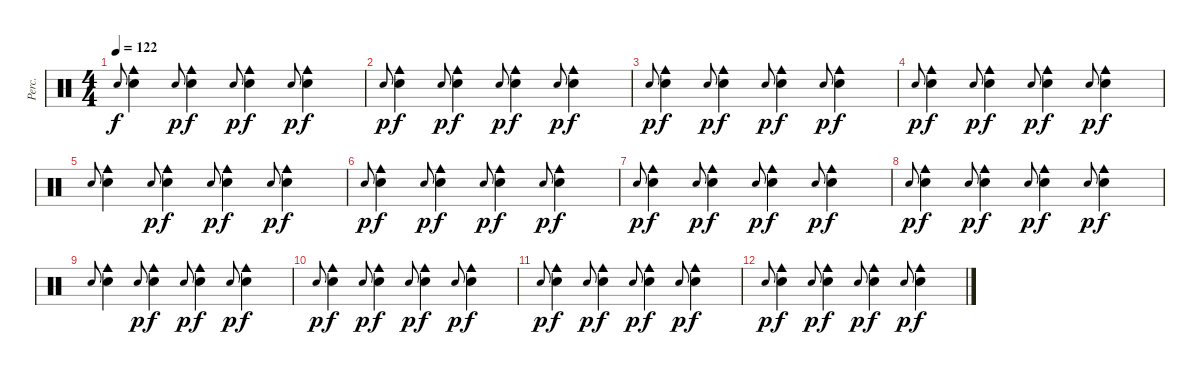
\track ("Perc." "Perc.") {instrument percussion}
\staff {score}
\articulation defaults
\ts (4 4)
\tempo 122
\clef neutral
\ks c "Hand Clap (hit)".8{gr onbeat dy f}
("Hand Clap (hit)" "Cowbell medium (hit)").4 "Hand Clap (hit)".8{gr onbeat dy p} ("Hand Clap (hit)" "Cowbell medium (hit)").4{dy f} "Hand Clap (hit)".8{gr onbeat dy p} ("Hand Clap (hit)" "Cowbell medium (hit)").4{dy f} "Hand Clap (hit)".8{gr onbeat dy p} ("Hand Clap (hit)" "Cowbell medium (hit)").4{dy f} |
"Hand Clap (hit)".8{gr onbeat dy p} ("Hand Clap (hit)" "Cowbell medium (hit)").4{dy f} "Hand Clap (hit)".8{gr onbeat dy p} ("Hand Clap (hit)" "Cowbell medium (hit)").4{dy f} "Hand Clap (hit)".8{gr onbeat dy p} ("Hand Clap (hit)" "Cowbell medium (hit)").4{dy f} "Hand Clap (hit)".8{gr onbeat dy p} ("Hand Clap (hit)" "Cowbell medium (hit)").4{dy f} |
"Hand Clap (hit)".8{gr onbeat dy p} ("Hand Clap (hit)" "Cowbell medium (hit)").4{dy f} "Hand Clap (hit)".8{gr onbeat dy p} ("Hand Clap (hit)" "Cowbell medium (hit)").4{dy f} "Hand Clap (hit)".8{gr onbeat dy p} ("Hand Clap (hit)" "Cowbell medium (hit)").4{dy f} "Hand Clap (hit)".8{gr onbeat dy p} ("Hand Clap (hit)" "Cowbell medium (hit)").4{dy f} |
"Hand Clap (hit)".8{gr onbeat dy p} ("Hand Clap (hit)" "Cowbell medium (hit)").4{dy f} "Hand Clap (hit)".8{gr onbeat dy p} ("Hand Clap (hit)" "Cowbell medium (hit)").4{dy f} "Hand Clap (hit)".8{gr onbeat dy p} ("Hand Clap (hit)" "Cowbell medium (hit)").4{dy f} "Hand Clap (hit)".8{gr onbeat dy p} ("Hand Clap (hit)" "Cowbell medium (hit)").4{dy f} |
"Hand Clap (hit)".8{gr onbeat} ("Hand Clap (hit)" "Cowbell medium (hit)").4 "Hand Clap (hit)".8{gr onbeat dy p} ("Hand Clap (hit)" "Cowbell medium (hit)").4{dy f} "Hand Clap (hit)".8{gr onbeat dy p} ("Hand Clap (hit)" "Cowbell medium (hit)").4{dy f} "Hand Clap (hit)".8{gr onbeat dy p} ("Hand Clap (hit)" "Cowbell medium (hit)").4{dy f} |
"Hand Clap (hit)".8{gr onbeat dy p} ("Hand Clap (hit)" "Cowbell medium (hit)").4{dy f} "Hand Clap (hit)".8{gr onbeat dy p} ("Hand Clap (hit)" "Cowbell medium (hit)").4{dy f} "Hand Clap (hit)".8{gr onbeat dy p} ("Hand Clap (hit)" "Cowbell medium (hit)").4{dy f} "Hand Clap (hit)".8{gr onbeat dy p} ("Hand Clap (hit)" "Cowbell medium (hit)").4{dy f} |
"Hand Clap (hit)".8{gr onbeat dy p} ("Hand Clap (hit)" "Cowbell medium (hit)").4{dy f} "Hand Clap (hit)".8{gr onbeat dy p} ("Hand Clap (hit)" "Cowbell medium (hit)").4{dy f} "Hand Clap (hit)".8{gr onbeat dy p} ("Hand Clap (hit)" "Cowbell medium (hit)").4{dy f} "Hand Clap (hit)".8{gr onbeat dy p} ("Hand Clap (hit)" "Cowbell medium (hit)").4{dy f} |
"Hand Clap (hit)".8{gr onbeat dy p} ("Hand Clap (hit)" "Cowbell medium (hit)").4{dy f} "Hand Clap (hit)".8{gr onbeat dy p} ("Hand Clap (hit)" "Cowbell medium (hit)").4{dy f} "Hand Clap (hit)".8{gr onbeat dy p} ("Hand Clap (hit)" "Cowbell medium (hit)").4{dy f} "Hand Clap (hit)".8{gr onbeat dy p} ("Hand Clap (hit)" "Cowbell medium (hit)").4{dy f} |
"Hand Clap (hit)".8{gr onbeat} ("Hand Clap (hit)" "Cowbell medium (hit)").4 "Hand Clap (hit)".8{gr onbeat dy p} ("Hand Clap (hit)" "Cowbell medium (hit)").4{dy f} "Hand Clap (hit)".8{gr onbeat dy p} ("Hand Clap (hit)" "Cowbell medium (hit)").4{dy f} "Hand Clap (hit)".8{gr onbeat dy p} ("Hand Clap (hit)" "Cowbell medium (hit)").4{dy f} |
"Hand Clap (hit)".8{gr onbeat dy p} ("Hand Clap (hit)" "Cowbell medium (hit)").4{dy f} "Hand Clap (hit)".8{gr onbeat dy p} ("Hand Clap (hit)" "Cowbell medium (hit)").4{dy f} "Hand Clap (hit)".8{gr onbeat dy p} ("Hand Clap (hit)" "Cowbell medium (hit)").4{dy f} "Hand Clap (hit)".8{gr onbeat dy p} ("Hand Clap (hit)" "Cowbell medium (hit)").4{dy f} |
"Hand Clap (hit)".8{gr onbeat dy p} ("Hand Clap (hit)" "Cowbell medium (hit)").4{dy f} "Hand Clap (hit)".8{gr onbeat dy p} ("Hand Clap (hit)" "Cowbell medium (hit)").4{dy f} "Hand Clap (hit)".8{gr onbeat dy p} ("Hand Clap (hit)" "Cowbell medium (hit)").4{dy f} "Hand Clap (hit)".8{gr onbeat dy p} ("Hand Clap (hit)" "Cowbell medium (hit)").4{dy f} |
"Hand Clap (hit)".8{gr onbeat dy p} ("Hand Clap (hit)" "Cowbell medium (hit)").4{dy f} "Hand Clap (hit)".8{gr onbeat dy p} ("Hand Clap (hit)" "Cowbell medium (hit)").4{dy f} "Hand Clap (hit)".8{gr onbeat dy p} ("Hand Clap (hit)" "Cowbell medium (hit)").4{dy f} "Hand Clap (hit)".8{gr onbeat dy p} ("Hand Clap (hit)" "Cowbell medium (hit)").4{dy f}
